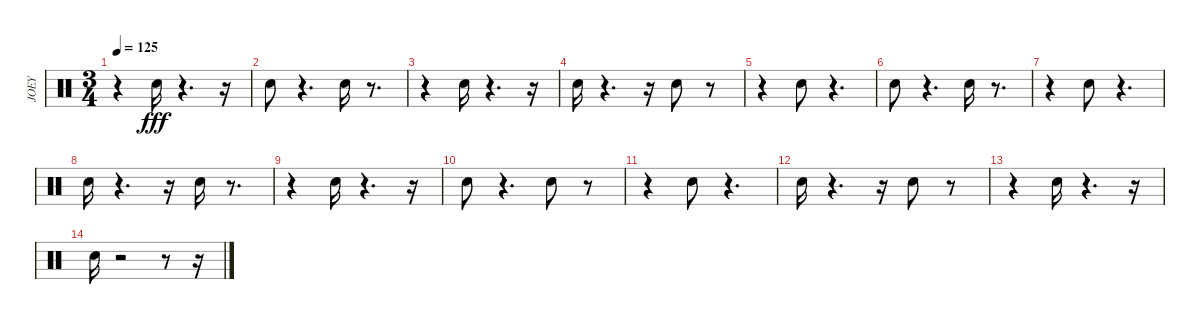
\track ("JOEY" "JOEY") {instrument percussion}
\staff {score}
\articulation defaults
\ts (3 4)
\tempo 125
\clef neutral
\ks c
r.4{dy fff} "Snare (hit) 2".16 r.4{d} r.16 |
"Snare (hit) 2".8 r.4{d} "Snare (hit) 2".16 r.8{d} |
r.4 "Snare (hit) 2".16 r.4{d} r.16 |
"Snare (hit) 2".16 r.4{d} r.16 "Snare (hit) 2".8 r.8 |
r.4 "Snare (hit) 2".8 r.4{d} |
"Snare (hit) 2".8 r.4{d} "Snare (hit) 2".16 r.8{d} |
r.4 "Snare (hit) 2".8 r.4{d} |
"Snare (hit) 2".16 r.4{d} r.16 "Snare (hit) 2".16 r.8{d} |
r.4 "Snare (hit) 2".16 r.4{d} r.16 |
"Snare (hit) 2".8 r.4{d} "Snare (hit) 2".8 r.8 |
r.4 "Snare (hit) 2".8 r.4{d} |
"Snare (hit) 2".16 r.4{d} r.16 "Snare (hit) 2".8 r.8 |
r.4 "Snare (hit) 2".16 r.4{d} r.16 |
"Snare (hit) 2".16 r.2 r.8 r.16
